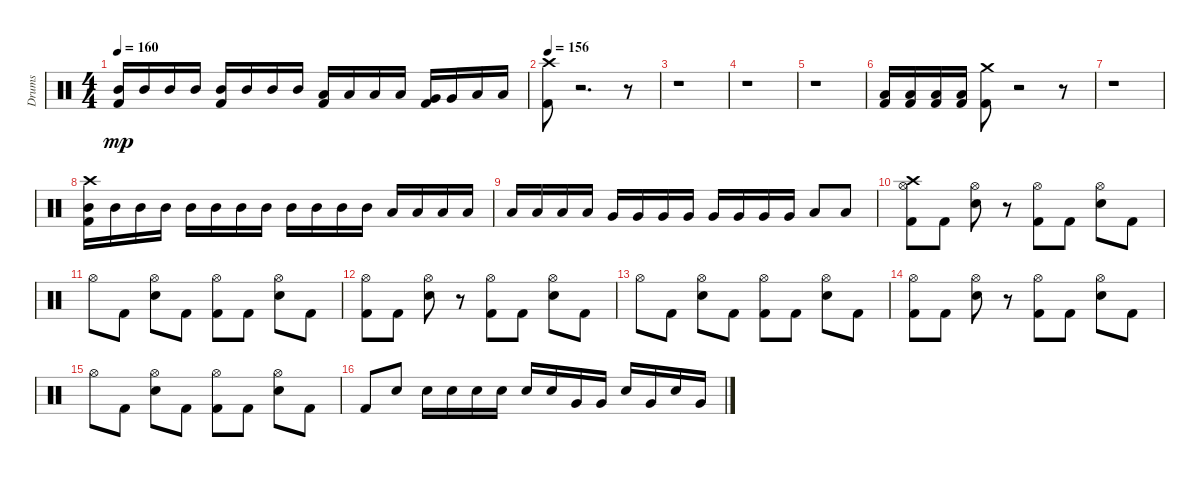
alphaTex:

\track ("Drums" "Drums") {instrument percussion}
\staff {score}
\articulation defaults
\ts (4 4)
\tempo 160
\clef neutral
\ks c
("Mid Tom (hit)" "Kick (hit) 2").16{dy mp} "Mid Tom (hit)".16 "Mid Tom (hit)".16 "Mid Tom (hit)".16 ("Kick (hit) 2" "Mid Tom (hit)").16 "Mid Tom (hit)".16 "Mid Tom (hit)".16 "Mid Tom (hit)".16 ("Low Tom (hit)" "Kick (hit) 2").16 "Low Tom (hit)".16 "Low Tom (hit)".16 "Low Tom (hit)".16 ("Kick (hit) 2" "Very Low Tom (hit)").16 "Very Low Tom (hit)".16 "Low Floor Tom (hit)".16 "Low Floor Tom (hit)".16 |
\tempo 156
("Kick (hit) 2" "Crash high (hit)").8 r.2{d} r.8 |
r.1 |
r.1 |
r.1 |
("Low Tom (hit)" "Kick (hit) 2").16 ("Low Tom (hit)" "Kick (hit) 2").16 ("Low Tom (hit)" "Kick (hit) 2").16 ("Kick (hit) 2" "Low Tom (hit)").16 ("Kick (hit) 2" "Crash medium (hit)").8 r.2 r.8 |
r.1 |
("Kick (hit) 2" "Mid Tom (hit)" "Crash high (hit)").16 "Mid Tom (hit)".16 "Mid Tom (hit)".16 "Mid Tom (hit)".16 "Mid Tom (hit)".16 "Mid Tom (hit)".16 "Mid Tom (hit)".16 "Mid Tom (hit)".16 "Mid Tom (hit)".16 "Mid Tom (hit)".16 "Mid Tom (hit)".16 "Mid Tom (hit)".16 "Low Tom (hit)".16 "Low Tom (hit)".16 "Low Tom (hit)".16 "Low Tom (hit)".16 |
"Low Tom (hit)".16 "Low Tom (hit)".16 "Low Tom (hit)".16 "Low Tom (hit)".16 "Very Low Tom (hit)".16 "Very Low Tom (hit)".16 "Very Low Tom (hit)".16 "Very Low Tom (hit)".16 "Very Low Tom (hit)".16 "Very Low Tom (hit)".16 "Very Low Tom (hit)".16 "Very Low Tom (hit)".16 "Low Floor Tom (hit)".8 "Low Floor Tom (hit)".8 |
("Hi-Hat (open)" "Kick (hit) 2" "Crash high (hit)").8 "Kick (hit) 2".8 ("Snare (hit) 2" "Hi-Hat (open)").8 r.8 ("Kick (hit) 2" "Hi-Hat (open)").8 "Kick (hit) 2".8 ("Hi-Hat (open)" "Snare (hit) 2").8 "Kick (hit) 2".8 |
"Hi-Hat (open)".8 "Kick (hit) 2".8 ("Hi-Hat (open)" "Snare (hit) 2").8 "Kick (hit) 2".8 ("Kick (hit) 2" "Hi-Hat (open)").8 "Kick (hit) 2".8 ("Snare (hit) 2" "Hi-Hat (open)").8 "Kick (hit) 2".8 |
("Kick (hit) 2" "Hi-Hat (open)").8 "Kick (hit) 2".8 ("Hi-Hat (open)" "Snare (hit) 2").8 r.8 ("Kick (hit) 2" "Hi-Hat (open)").8 "Kick (hit) 2".8 ("Snare (hit) 2" "Hi-Hat (open)").8 "Kick (hit) 2".8 |
"Hi-Hat (open)".8 "Kick (hit) 2".8 ("Snare (hit) 2" "Hi-Hat (open)").8 "Kick (hit) 2".8 ("Kick (hit) 2" "Hi-Hat (open)").8 "Kick (hit) 2".8 ("Hi-Hat (open)" "Snare (hit) 2").8 "Kick (hit) 2".8 |
("Kick (hit) 2" "Hi-Hat (open)").8 "Kick (hit) 2".8 ("Hi-Hat (open)" "Electric Snare (hit)").8 r.8 ("Kick (hit) 2" "Hi-Hat (open)").8 "Kick (hit) 2".8 ("Electric Snare (hit)" "Hi-Hat (open)").8 "Kick (hit) 2".8 |
"Hi-Hat (open)".8 "Kick (hit) 2".8 ("Electric Snare (hit)" "Hi-Hat (open)").8 "Kick (hit) 2".8 ("Kick (hit) 2" "Hi-Hat (open)").8 "Kick (hit) 2".8 ("Hi-Hat (open)" "Electric Snare (hit)").8 "Kick (hit) 2".8 |
"Kick (hit) 2".8 "Electric Snare (hit)".8 "Electric Snare (hit)".16 "Electric Snare (hit)".16 "Electric Snare (hit)".16 "Electric Snare (hit)".16 "Electric Snare (hit)".16 "Electric Snare (hit)".16 "Very Low Tom (hit)".16 "Very Low Tom (hit)".16 "Electric Snare (hit)".16 "Very Low Tom (hit)".16 "Electric Snare (hit)".16 "Very Low Tom (hit)".16
